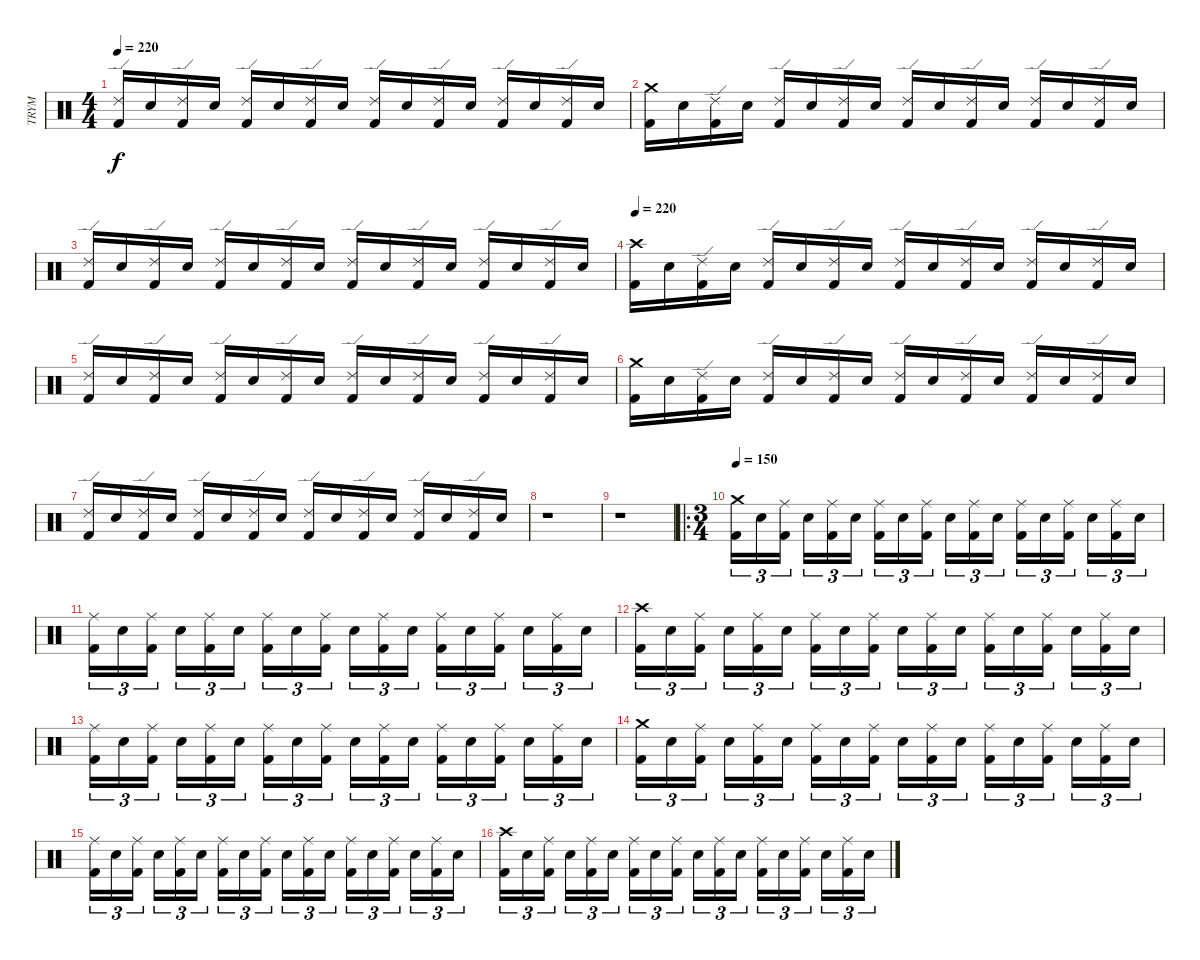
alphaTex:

\track ("TRYM" "TRYM") {instrument percussion}
\staff {score}
\articulation defaults
\ts (4 4)
\tempo 220
\clef neutral
\ks c
("Kick (hit) 2" "Ride (edge) 2").16{dy f} "Electric Snare (hit)".16 ("Kick (hit) 2" "Ride (edge) 2").16 "Electric Snare (hit)".16 ("Kick (hit) 2" "Ride (edge) 2").16 "Electric Snare (hit)".16 ("Kick (hit) 2" "Ride (edge) 2").16 "Electric Snare (hit)".16 ("Kick (hit) 2" "Ride (edge) 2").16 "Electric Snare (hit)".16 ("Kick (hit) 2" "Ride (edge) 2").16 "Electric Snare (hit)".16 ("Kick (hit) 2" "Ride (edge) 2").16 "Electric Snare (hit)".16 ("Kick (hit) 2" "Ride (edge) 2").16 "Electric Snare (hit)".16 |
("Kick (hit) 2" "Crash medium (hit)").16 "Electric Snare (hit)".16 ("Kick (hit) 2" "Ride (edge) 2").16 "Electric Snare (hit)".16 ("Kick (hit) 2" "Ride (edge) 2").16 "Electric Snare (hit)".16 ("Kick (hit) 2" "Ride (edge) 2").16 "Electric Snare (hit)".16 ("Kick (hit) 2" "Ride (edge) 2").16 "Electric Snare (hit)".16 ("Kick (hit) 2" "Ride (edge) 2").16 "Electric Snare (hit)".16 ("Kick (hit) 2" "Ride (edge) 2").16 "Electric Snare (hit)".16 ("Kick (hit) 2" "Ride (edge) 2").16 "Electric Snare (hit)".16 |
("Kick (hit) 2" "Ride (edge) 2").16 "Electric Snare (hit)".16 ("Kick (hit) 2" "Ride (edge) 2").16 "Electric Snare (hit)".16 ("Kick (hit) 2" "Ride (edge) 2").16 "Electric Snare (hit)".16 ("Kick (hit) 2" "Ride (edge) 2").16 "Electric Snare (hit)".16 ("Kick (hit) 2" "Ride (edge) 2").16 "Electric Snare (hit)".16 ("Kick (hit) 2" "Ride (edge) 2").16 "Electric Snare (hit)".16 ("Kick (hit) 2" "Ride (edge) 2").16 "Electric Snare (hit)".16 ("Kick (hit) 2" "Ride (edge) 2").16 "Electric Snare (hit)".16 |
\tempo 220
("Kick (hit) 2" "Crash high (hit)").16 "Electric Snare (hit)".16 ("Kick (hit) 2" "Ride (edge) 2").16 "Electric Snare (hit)".16 ("Kick (hit) 2" "Ride (edge) 2").16 "Electric Snare (hit)".16 ("Kick (hit) 2" "Ride (edge) 2").16 "Electric Snare (hit)".16 ("Kick (hit) 2" "Ride (edge) 2").16 "Electric Snare (hit)".16 ("Kick (hit) 2" "Ride (edge) 2").16 "Electric Snare (hit)".16 ("Kick (hit) 2" "Ride (edge) 2").16 "Electric Snare (hit)".16 ("Kick (hit) 2" "Ride (edge) 2").16 "Electric Snare (hit)".16 |
("Kick (hit) 2" "Ride (edge) 2").16 "Electric Snare (hit)".16 ("Kick (hit) 2" "Ride (edge) 2").16 "Electric Snare (hit)".16 ("Kick (hit) 2" "Ride (edge) 2").16 "Electric Snare (hit)".16 ("Kick (hit) 2" "Ride (edge) 2").16 "Electric Snare (hit)".16 ("Kick (hit) 2" "Ride (edge) 2").16 "Electric Snare (hit)".16 ("Kick (hit) 2" "Ride (edge) 2").16 "Electric Snare (hit)".16 ("Kick (hit) 2" "Ride (edge) 2").16 "Electric Snare (hit)".16 ("Kick (hit) 2" "Ride (edge) 2").16 "Electric Snare (hit)".16 |
("Kick (hit) 2" "Crash medium (hit)").16 "Electric Snare (hit)".16 ("Kick (hit) 2" "Ride (edge) 2").16 "Electric Snare (hit)".16 ("Kick (hit) 2" "Ride (edge) 2").16 "Electric Snare (hit)".16 ("Kick (hit) 2" "Ride (edge) 2").16 "Electric Snare (hit)".16 ("Kick (hit) 2" "Ride (edge) 2").16 "Electric Snare (hit)".16 ("Kick (hit) 2" "Ride (edge) 2").16 "Electric Snare (hit)".16 ("Kick (hit) 2" "Ride (edge) 2").16 "Electric Snare (hit)".16 ("Kick (hit) 2" "Ride (edge) 2").16 "Electric Snare (hit)".16 |
("Kick (hit) 2" "Ride (edge) 2").16 "Electric Snare (hit)".16 ("Kick (hit) 2" "Ride (edge) 2").16 "Electric Snare (hit)".16 ("Kick (hit) 2" "Ride (edge) 2").16 "Electric Snare (hit)".16 ("Kick (hit) 2" "Ride (edge) 2").16 "Electric Snare (hit)".16 ("Kick (hit) 2" "Ride (edge) 2").16 "Electric Snare (hit)".16 ("Kick (hit) 2" "Ride (edge) 2").16 "Electric Snare (hit)".16 ("Kick (hit) 2" "Ride (edge) 2").16 "Electric Snare (hit)".16 ("Kick (hit) 2" "Ride (edge) 2").16 "Electric Snare (hit)".16 |
r.1 |
r.1 |
\ro
\ts (3 4)
\tempo 150
("Kick (hit) 2" "Crash medium (hit)").16{tu (3 2)} "Electric Snare (hit)".16{tu (3 2)} ("Kick (hit) 2" "Ride (middle)").16{tu (3 2)} "Electric Snare (hit)".16{tu (3 2)} ("Kick (hit) 2" "Ride (middle)").16{tu (3 2)} "Electric Snare (hit)".16{tu (3 2)} ("Kick (hit) 2" "Ride (middle)").16{tu (3 2)} "Electric Snare (hit)".16{tu (3 2)} ("Kick (hit) 2" "Ride (middle)").16{tu (3 2)} "Electric Snare (hit)".16{tu (3 2)} ("Kick (hit) 2" "Ride (middle)").16{tu (3 2)} "Electric Snare (hit)".16{tu (3 2)} ("Kick (hit) 2" "Ride (middle)").16{tu (3 2)} "Electric Snare (hit)".16{tu (3 2)} ("Kick (hit) 2" "Ride (middle)").16{tu (3 2)} "Electric Snare (hit)".16{tu (3 2)} ("Kick (hit) 2" "Ride (middle)").16{tu (3 2)} "Electric Snare (hit)".16{tu (3 2)} |
("Kick (hit) 2" "Ride (middle)").16{tu (3 2)} "Electric Snare (hit)".16{tu (3 2)} ("Kick (hit) 2" "Ride (middle)").16{tu (3 2)} "Electric Snare (hit)".16{tu (3 2)} ("Kick (hit) 2" "Ride (middle)").16{tu (3 2)} "Electric Snare (hit)".16{tu (3 2)} ("Kick (hit) 2" "Ride (middle)").16{tu (3 2)} "Electric Snare (hit)".16{tu (3 2)} ("Kick (hit) 2" "Ride (middle)").16{tu (3 2)} "Electric Snare (hit)".16{tu (3 2)} ("Kick (hit) 2" "Ride (middle)").16{tu (3 2)} "Electric Snare (hit)".16{tu (3 2)} ("Kick (hit) 2" "Ride (middle)").16{tu (3 2)} "Electric Snare (hit)".16{tu (3 2)} ("Kick (hit) 2" "Ride (middle)").16{tu (3 2)} "Electric Snare (hit)".16{tu (3 2)} ("Kick (hit) 2" "Ride (middle)").16{tu (3 2)} "Electric Snare (hit)".16{tu (3 2)} |
("Kick (hit) 2" "Crash high (hit)").16{tu (3 2)} "Electric Snare (hit)".16{tu (3 2)} ("Kick (hit) 2" "Ride (middle)").16{tu (3 2)} "Electric Snare (hit)".16{tu (3 2)} ("Kick (hit) 2" "Ride (middle)").16{tu (3 2)} "Electric Snare (hit)".16{tu (3 2)} ("Kick (hit) 2" "Ride (middle)").16{tu (3 2)} "Electric Snare (hit)".16{tu (3 2)} ("Kick (hit) 2" "Ride (middle)").16{tu (3 2)} "Electric Snare (hit)".16{tu (3 2)} ("Kick (hit) 2" "Ride (middle)").16{tu (3 2)} "Electric Snare (hit)".16{tu (3 2)} ("Kick (hit) 2" "Ride (middle)").16{tu (3 2)} "Electric Snare (hit)".16{tu (3 2)} ("Kick (hit) 2" "Ride (middle)").16{tu (3 2)} "Electric Snare (hit)".16{tu (3 2)} ("Kick (hit) 2" "Ride (middle)").16{tu (3 2)} "Electric Snare (hit)".16{tu (3 2)} |
("Kick (hit) 2" "Ride (middle)").16{tu (3 2)} "Electric Snare (hit)".16{tu (3 2)} ("Kick (hit) 2" "Ride (middle)").16{tu (3 2)} "Electric Snare (hit)".16{tu (3 2)} ("Kick (hit) 2" "Ride (middle)").16{tu (3 2)} "Electric Snare (hit)".16{tu (3 2)} ("Kick (hit) 2" "Ride (middle)").16{tu (3 2)} "Electric Snare (hit)".16{tu (3 2)} ("Kick (hit) 2" "Ride (middle)").16{tu (3 2)} "Electric Snare (hit)".16{tu (3 2)} ("Kick (hit) 2" "Ride (middle)").16{tu (3 2)} "Electric Snare (hit)".16{tu (3 2)} ("Kick (hit) 2" "Ride (middle)").16{tu (3 2)} "Electric Snare (hit)".16{tu (3 2)} ("Kick (hit) 2" "Ride (middle)").16{tu (3 2)} "Electric Snare (hit)".16{tu (3 2)} ("Kick (hit) 2" "Ride (middle)").16{tu (3 2)} "Electric Snare (hit)".16{tu (3 2)} |
("Kick (hit) 2" "Crash medium (hit)").16{tu (3 2)} "Electric Snare (hit)".16{tu (3 2)} ("Kick (hit) 2" "Ride (middle)").16{tu (3 2)} "Electric Snare (hit)".16{tu (3 2)} ("Kick (hit) 2" "Ride (middle)").16{tu (3 2)} "Electric Snare (hit)".16{tu (3 2)} ("Kick (hit) 2" "Ride (middle)").16{tu (3 2)} "Electric Snare (hit)".16{tu (3 2)} ("Kick (hit) 2" "Ride (middle)").16{tu (3 2)} "Electric Snare (hit)".16{tu (3 2)} ("Kick (hit) 2" "Ride (middle)").16{tu (3 2)} "Electric Snare (hit)".16{tu (3 2)} ("Kick (hit) 2" "Ride (middle)").16{tu (3 2)} "Electric Snare (hit)".16{tu (3 2)} ("Kick (hit) 2" "Ride (middle)").16{tu (3 2)} "Electric Snare (hit)".16{tu (3 2)} ("Kick (hit) 2" "Ride (middle)").16{tu (3 2)} "Electric Snare (hit)".16{tu (3 2)} |
("Kick (hit) 2" "Ride (middle)").16{tu (3 2)} "Electric Snare (hit)".16{tu (3 2)} ("Kick (hit) 2" "Ride (middle)").16{tu (3 2)} "Electric Snare (hit)".16{tu (3 2)} ("Kick (hit) 2" "Ride (middle)").16{tu (3 2)} "Electric Snare (hit)".16{tu (3 2)} ("Kick (hit) 2" "Ride (middle)").16{tu (3 2)} "Electric Snare (hit)".16{tu (3 2)} ("Kick (hit) 2" "Ride (middle)").16{tu (3 2)} "Electric Snare (hit)".16{tu (3 2)} ("Kick (hit) 2" "Ride (middle)").16{tu (3 2)} "Electric Snare (hit)".16{tu (3 2)} ("Kick (hit) 2" "Ride (middle)").16{tu (3 2)} "Electric Snare (hit)".16{tu (3 2)} ("Kick (hit) 2" "Ride (middle)").16{tu (3 2)} "Electric Snare (hit)".16{tu (3 2)} ("Kick (hit) 2" "Ride (middle)").16{tu (3 2)} "Electric Snare (hit)".16{tu (3 2)} |
("Kick (hit) 2" "Crash high (hit)").16{tu (3 2)} "Electric Snare (hit)".16{tu (3 2)} ("Kick (hit) 2" "Ride (middle)").16{tu (3 2)} "Electric Snare (hit)".16{tu (3 2)} ("Kick (hit) 2" "Ride (middle)").16{tu (3 2)} "Electric Snare (hit)".16{tu (3 2)} ("Kick (hit) 2" "Ride (middle)").16{tu (3 2)} "Electric Snare (hit)".16{tu (3 2)} ("Kick (hit) 2" "Ride (middle)").16{tu (3 2)} "Electric Snare (hit)".16{tu (3 2)} ("Kick (hit) 2" "Ride (middle)").16{tu (3 2)} "Electric Snare (hit)".16{tu (3 2)} ("Kick (hit) 2" "Ride (middle)").16{tu (3 2)} "Electric Snare (hit)".16{tu (3 2)} ("Kick (hit) 2" "Ride (middle)").16{tu (3 2)} "Electric Snare (hit)".16{tu (3 2)} ("Kick (hit) 2" "Ride (middle)").16{tu (3 2)} "Electric Snare (hit)".16{tu (3 2)}
